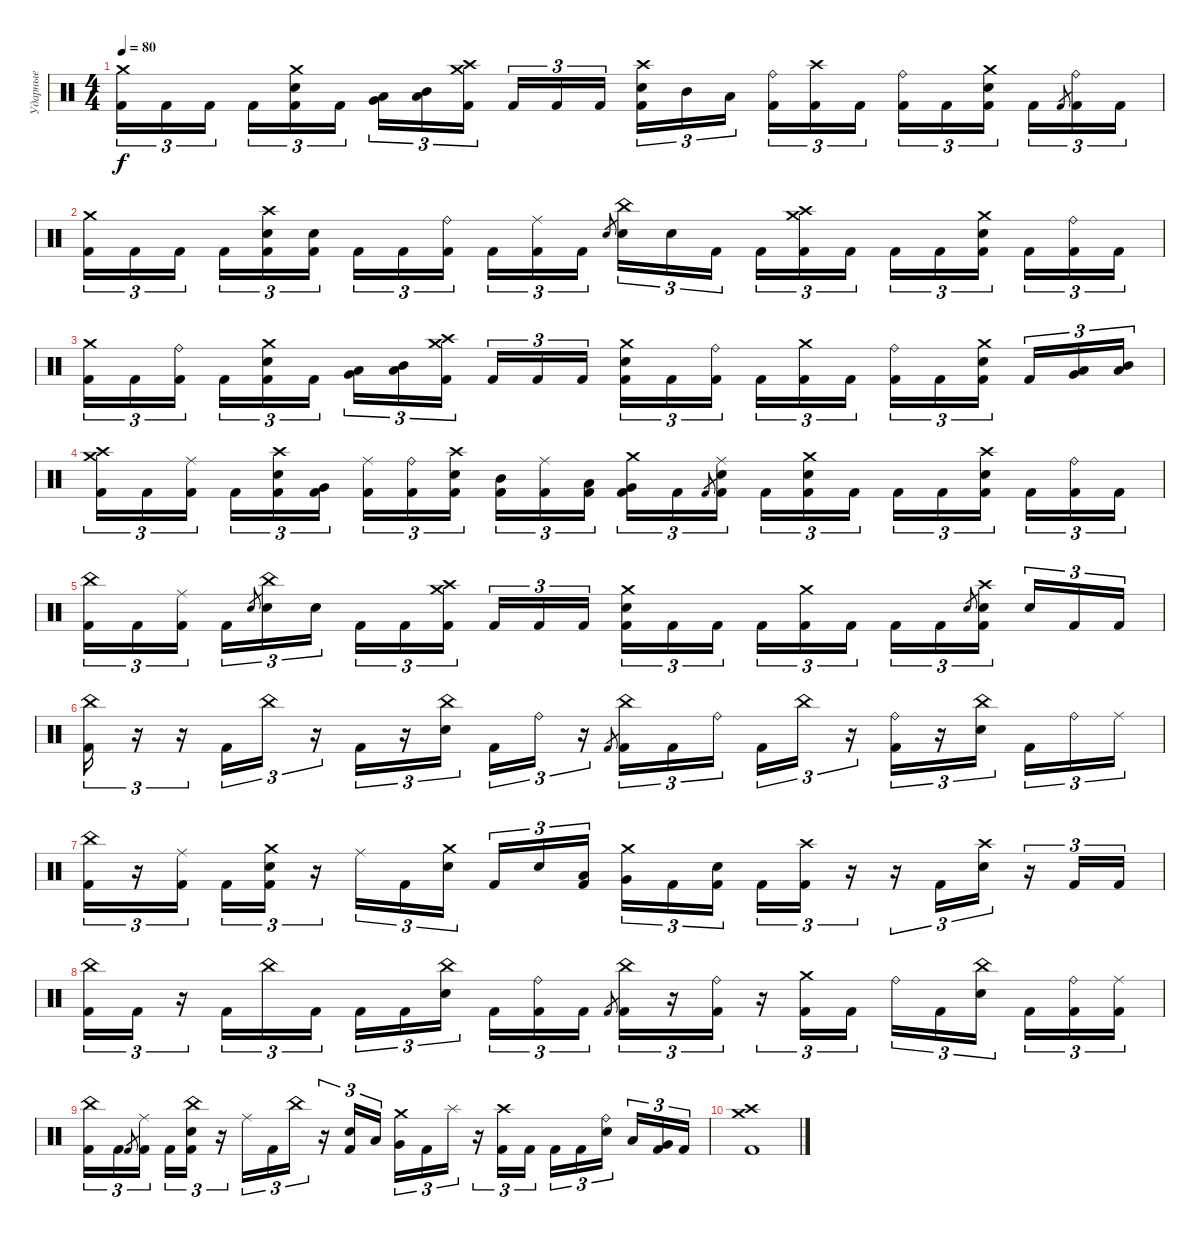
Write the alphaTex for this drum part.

\track ("Ударные" "Ударные") {instrument percussion}
\staff {score}
\articulation defaults
\ts (4 4)
\tempo 80
\clef neutral
\ks c
("Crash medium (hit)" "Kick (hit) 2").16{tu (3 2) dy f} "Kick (hit) 2".16{tu (3 2)} "Kick (hit) 2".16{tu (3 2) beam splitsecondary} "Kick (hit) 2".16{tu (3 2)} ("Crash medium (hit)" "Electric Snare (hit)" "Kick (hit) 2").16{tu (3 2)} "Kick (hit) 2".16{tu (3 2)} ("Very Low Tom (hit)" "Low Tom (hit)").16{tu (3 2)} ("Mid Tom (hit)" "Low Tom (hit)").16{tu (3 2)} ("Crash high (hit)" "Crash medium (hit)" "Kick (hit) 2").16{tu (3 2) beam splitsecondary} "Kick (hit) 2".16{tu (3 2)} "Kick (hit) 2".16{tu (3 2)} "Kick (hit) 2".16{tu (3 2)} ("Crash high (hit)" "Electric Snare (hit)" "Kick (hit) 2").16{tu (3 2)} "Mid Tom (hit)".16{tu (3 2)} "Low Tom (hit)".16{tu (3 2) beam splitsecondary} ("Ride (bell)" "Kick (hit) 2").16{tu (3 2)} ("Crash high (hit)" "Kick (hit) 2").16{tu (3 2)} "Kick (hit) 2".16{tu (3 2)} ("Ride (bell)" "Kick (hit) 2").16{tu (3 2)} "Kick (hit) 2".16{tu (3 2)} ("Crash medium (hit)" "Electric Snare (hit)" "Kick (hit) 2").16{tu (3 2) beam splitsecondary} "Kick (hit) 2".16{tu (3 2)} "Kick (hit) 2".8{gr} ("Ride (bell)" "Kick (hit) 2").16{tu (3 2)} "Kick (hit) 2".16{tu (3 2)} |
("Crash medium (hit)" "Kick (hit) 2").16{tu (3 2)} "Kick (hit) 2".16{tu (3 2)} "Kick (hit) 2".16{tu (3 2) beam splitsecondary} "Kick (hit) 2".16{tu (3 2)} ("Crash high (hit)" "Electric Snare (hit)" "Kick (hit) 2").16{tu (3 2)} ("Electric Snare (hit)" "Kick (hit) 2").16{tu (3 2)} "Kick (hit) 2".16{tu (3 2)} "Kick (hit) 2".16{tu (3 2)} ("Ride (bell)" "Kick (hit) 2").16{tu (3 2) beam splitsecondary} "Kick (hit) 2".16{tu (3 2)} ("Ride (middle)" "Kick (hit) 2").16{tu (3 2)} "Kick (hit) 2".16{tu (3 2)} "Electric Snare (hit)".8{gr} ("China (hit)" "Electric Snare (hit)").16{tu (3 2)} "Electric Snare (hit)".16{tu (3 2)} "Kick (hit) 2".16{tu (3 2) beam splitsecondary} "Kick (hit) 2".16{tu (3 2)} ("Crash medium (hit)" "Crash high (hit)" "Kick (hit) 2").16{tu (3 2)} "Kick (hit) 2".16{tu (3 2)} "Kick (hit) 2".16{tu (3 2)} "Kick (hit) 2".16{tu (3 2)} ("Crash medium (hit)" "Electric Snare (hit)" "Kick (hit) 2").16{tu (3 2) beam splitsecondary} "Kick (hit) 2".16{tu (3 2)} ("Ride (bell)" "Kick (hit) 2").16{tu (3 2)} "Kick (hit) 2".16{tu (3 2)} |
("Crash medium (hit)" "Kick (hit) 2").16{tu (3 2)} "Kick (hit) 2".16{tu (3 2)} ("Ride (bell)" "Kick (hit) 2").16{tu (3 2) beam splitsecondary} "Kick (hit) 2".16{tu (3 2)} ("Crash medium (hit)" "Electric Snare (hit)" "Kick (hit) 2").16{tu (3 2)} "Kick (hit) 2".16{tu (3 2)} ("Very Low Tom (hit)" "Low Tom (hit)").16{tu (3 2)} ("Mid Tom (hit)" "Low Tom (hit)").16{tu (3 2)} ("Crash medium (hit)" "Crash high (hit)" "Kick (hit) 2").16{tu (3 2) beam splitsecondary} "Kick (hit) 2".16{tu (3 2)} "Kick (hit) 2".16{tu (3 2)} "Kick (hit) 2".16{tu (3 2)} ("Crash medium (hit)" "Electric Snare (hit)" "Kick (hit) 2").16{tu (3 2)} "Kick (hit) 2".16{tu (3 2)} ("Ride (bell)" "Kick (hit) 2").16{tu (3 2) beam splitsecondary} "Kick (hit) 2".16{tu (3 2)} ("Crash medium (hit)" "Kick (hit) 2").16{tu (3 2)} "Kick (hit) 2".16{tu (3 2)} ("Ride (bell)" "Kick (hit) 2").16{tu (3 2)} "Kick (hit) 2".16{tu (3 2)} ("Crash medium (hit)" "Electric Snare (hit)" "Kick (hit) 2").16{tu (3 2) beam splitsecondary} "Kick (hit) 2".16{tu (3 2)} ("Very Low Tom (hit)" "Low Tom (hit)").16{tu (3 2)} ("Mid Tom (hit)" "Low Tom (hit)").16{tu (3 2)} |
("Crash high (hit)" "Crash medium (hit)" "Kick (hit) 2").16{tu (3 2)} "Kick (hit) 2".16{tu (3 2)} ("Ride (middle)" "Kick (hit) 2").16{tu (3 2) beam splitsecondary} "Kick (hit) 2".16{tu (3 2)} ("Crash high (hit)" "Electric Snare (hit)" "Kick (hit) 2").16{tu (3 2)} ("Very Low Tom (hit)" "Kick (hit) 2").16{tu (3 2)} ("Ride (middle)" "Kick (hit) 2").16{tu (3 2)} ("Ride (bell)" "Kick (hit) 2").16{tu (3 2)} ("Crash high (hit)" "Electric Snare (hit)" "Kick (hit) 2").16{tu (3 2) beam splitsecondary} ("Mid Tom (hit)" "Kick (hit) 2").16{tu (3 2)} ("Ride (middle)" "Kick (hit) 2").16{tu (3 2)} ("Low Tom (hit)" "Kick (hit) 2").16{tu (3 2)} ("Crash medium (hit)" "Very Low Tom (hit)" "Kick (hit) 2").16{tu (3 2)} "Kick (hit) 2".16{tu (3 2)} "Kick (hit) 2".8{gr} ("Ride (middle)" "Electric Snare (hit)" "Kick (hit) 2").16{tu (3 2) beam splitsecondary} "Kick (hit) 2".16{tu (3 2)} ("Crash medium (hit)" "Electric Snare (hit)" "Kick (hit) 2").16{tu (3 2)} "Kick (hit) 2".16{tu (3 2)} "Kick (hit) 2".16{tu (3 2)} "Kick (hit) 2".16{tu (3 2)} ("Crash high (hit)" "Electric Snare (hit)" "Kick (hit) 2").16{tu (3 2) beam splitsecondary} "Kick (hit) 2".16{tu (3 2)} ("Ride (bell)" "Kick (hit) 2").16{tu (3 2)} "Kick (hit) 2".16{tu (3 2)} |
("China (hit)" "Kick (hit) 2").16{tu (3 2)} "Kick (hit) 2".16{tu (3 2)} ("Ride (middle)" "Kick (hit) 2").16{tu (3 2) beam splitsecondary} "Kick (hit) 2".16{tu (3 2)} "Electric Snare (hit)".8{gr} ("China (hit)" "Electric Snare (hit)").16{tu (3 2)} "Electric Snare (hit)".16{tu (3 2)} "Kick (hit) 2".16{tu (3 2)} "Kick (hit) 2".16{tu (3 2)} ("Crash medium (hit)" "Crash high (hit)" "Kick (hit) 2").16{tu (3 2) beam splitsecondary} "Kick (hit) 2".16{tu (3 2)} "Kick (hit) 2".16{tu (3 2)} "Kick (hit) 2".16{tu (3 2)} ("Crash medium (hit)" "Electric Snare (hit)" "Kick (hit) 2").16{tu (3 2)} "Kick (hit) 2".16{tu (3 2)} "Kick (hit) 2".16{tu (3 2) beam splitsecondary} "Kick (hit) 2".16{tu (3 2)} ("Crash medium (hit)" "Kick (hit) 2").16{tu (3 2)} "Kick (hit) 2".16{tu (3 2)} "Kick (hit) 2".16{tu (3 2)} "Kick (hit) 2".16{tu (3 2)} "Electric Snare (hit)".8{gr} ("Crash high (hit)" "Electric Snare (hit)" "Kick (hit) 2").16{tu (3 2) beam splitsecondary} "Electric Snare (hit)".16{tu (3 2)} "Kick (hit) 2".16{tu (3 2)} "Kick (hit) 2".16{tu (3 2)} |
("China (hit)" "Kick (hit) 2").16{tu (3 2)} r.16{tu (3 2)} r.16{tu (3 2)} "Kick (hit) 2".16{tu (3 2)} "China (hit)".16{tu (3 2)} r.16{tu (3 2)} "Kick (hit) 2".16{tu (3 2)} r.16{tu (3 2)} ("China (hit)" "Electric Snare (hit)").16{tu (3 2) beam splitsecondary} "Kick (hit) 2".16{tu (3 2)} "Ride (bell)".16{tu (3 2)} r.16{tu (3 2)} "Kick (hit) 2".8{gr} ("China (hit)" "Kick (hit) 2").16{tu (3 2)} "Kick (hit) 2".16{tu (3 2)} "Ride (bell)".16{tu (3 2) beam splitsecondary} "Kick (hit) 2".16{tu (3 2)} "China (hit)".16{tu (3 2)} r.16{tu (3 2)} ("Ride (bell)" "Kick (hit) 2").16{tu (3 2)} r.16{tu (3 2)} ("China (hit)" "Electric Snare (hit)").16{tu (3 2) beam splitsecondary} "Kick (hit) 2".16{tu (3 2)} "Ride (bell)".16{tu (3 2)} "Ride (middle)".16{tu (3 2)} |
("China (hit)" "Kick (hit) 2").16{tu (3 2)} r.16{tu (3 2)} ("Ride (middle)" "Kick (hit) 2").16{tu (3 2) beam splitsecondary} "Kick (hit) 2".16{tu (3 2)} ("Crash medium (hit)" "Electric Snare (hit)" "Kick (hit) 2").16{tu (3 2)} r.16{tu (3 2)} "Ride (middle)".16{tu (3 2)} "Kick (hit) 2".16{tu (3 2)} ("Crash medium (hit)" "Electric Snare (hit)").16{tu (3 2) beam splitsecondary} "Kick (hit) 2".16{tu (3 2)} "Electric Snare (hit)".16{tu (3 2)} ("Low Tom (hit)" "Kick (hit) 2").16{tu (3 2)} ("Crash medium (hit)" "Very Low Tom (hit)").16{tu (3 2)} "Kick (hit) 2".16{tu (3 2)} ("Electric Snare (hit)" "Kick (hit) 2").16{tu (3 2) beam splitsecondary} "Kick (hit) 2".16{tu (3 2)} ("Crash high (hit)" "Kick (hit) 2").16{tu (3 2)} r.16{tu (3 2)} r.16{tu (3 2)} "Kick (hit) 2".16{tu (3 2)} ("Crash high (hit)" "Electric Snare (hit)").16{tu (3 2)} r.16{tu (3 2)} "Kick (hit) 2".16{tu (3 2)} "Kick (hit) 2".16{tu (3 2)} |
("China (hit)" "Kick (hit) 2").16{tu (3 2)} "Kick (hit) 2".16{tu (3 2)} r.16{tu (3 2)} "Kick (hit) 2".16{tu (3 2)} "China (hit)".16{tu (3 2)} "Kick (hit) 2".16{tu (3 2)} "Kick (hit) 2".16{tu (3 2)} "Kick (hit) 2".16{tu (3 2)} ("China (hit)" "Electric Snare (hit)").16{tu (3 2) beam splitsecondary} "Kick (hit) 2".16{tu (3 2)} ("Ride (bell)" "Kick (hit) 2").16{tu (3 2)} "Kick (hit) 2".16{tu (3 2)} "Kick (hit) 2".8{gr} ("China (hit)" "Kick (hit) 2").16{tu (3 2)} r.16{tu (3 2)} ("Ride (bell)" "Kick (hit) 2").16{tu (3 2)} r.16{tu (3 2)} ("Crash medium (hit)" "Kick (hit) 2").16{tu (3 2)} "Kick (hit) 2".16{tu (3 2)} "Ride (bell)".16{tu (3 2)} "Kick (hit) 2".16{tu (3 2)} ("China (hit)" "Electric Snare (hit)").16{tu (3 2) beam splitsecondary} "Kick (hit) 2".16{tu (3 2)} ("Ride (bell)" "Kick (hit) 2").16{tu (3 2)} ("Ride (middle)" "Kick (hit) 2").16{tu (3 2)} |
("China (hit)" "Kick (hit) 2").16{tu (3 2)} "Kick (hit) 2".16{tu (3 2)} "Kick (hit) 2".8{gr} ("Ride (middle)" "Kick (hit) 2").16{tu (3 2) beam splitsecondary} "Kick (hit) 2".16{tu (3 2)} ("China (hit)" "Electric Snare (hit)" "Kick (hit) 2").16{tu (3 2)} r.16{tu (3 2)} "Ride (middle)".16{tu (3 2)} "Kick (hit) 2".16{tu (3 2)} "China (hit)".16{tu (3 2)} r.16{tu (3 2)} ("Electric Snare (hit)" "Kick (hit) 2").16{tu (3 2)} "Low Tom (hit)".16{tu (3 2)} ("Crash medium (hit)" "Very Low Tom (hit)").16{tu (3 2)} "Kick (hit) 2".16{tu (3 2)} "Splash (hit)".16{tu (3 2)} r.16{tu (3 2)} ("Crash high (hit)" "Kick (hit) 2").16{tu (3 2)} "Kick (hit) 2".16{tu (3 2)} "Kick (hit) 2".16{tu (3 2)} "Kick (hit) 2".16{tu (3 2)} ("Ride (bell)" "Electric Snare (hit)").16{tu (3 2) beam splitsecondary} "Low Tom (hit)".16{tu (3 2)} ("Very Low Tom (hit)" "Kick (hit) 2").16{tu (3 2)} "Kick (hit) 2".16{tu (3 2)} |
("Crash medium (hit)" "Crash high (hit)" "Kick (hit) 2").1
